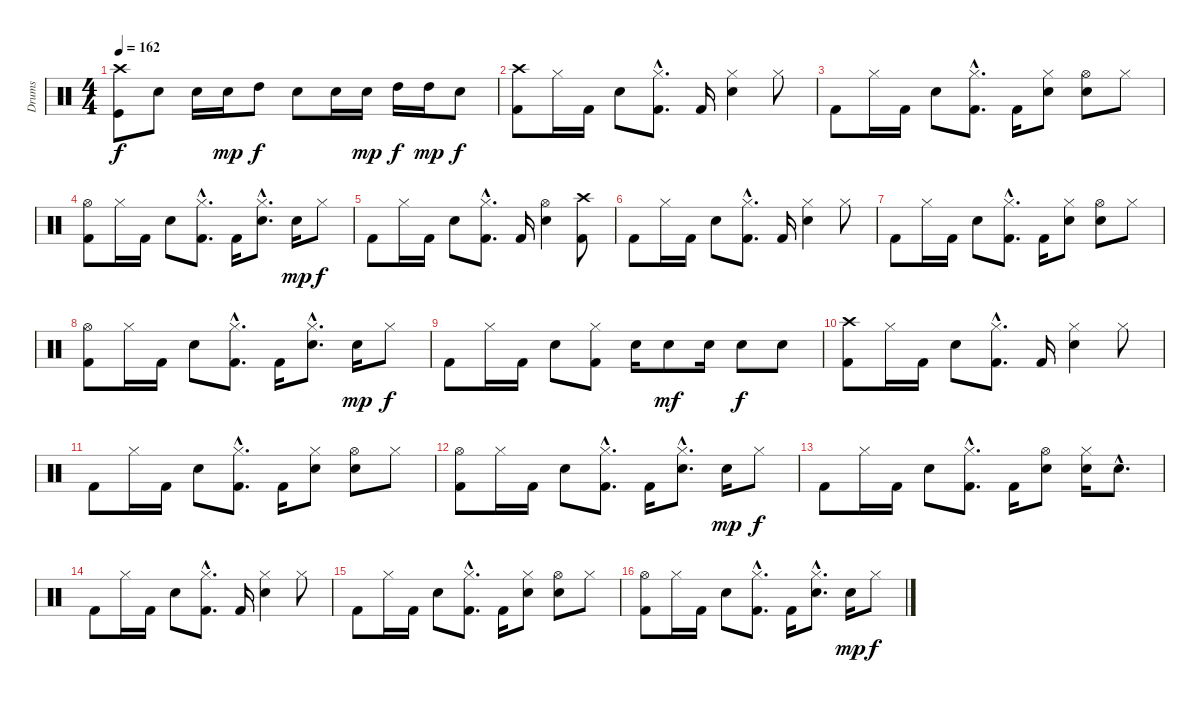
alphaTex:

\track ("Drums" "Drums") {instrument percussion}
\staff {score}
\articulation defaults
\ts (4 4)
\tempo 162
\clef neutral
\ks c
("Crash high (hit)" "Kick (hit)").8{dy f} "Electric Snare (hit)".8 "Electric Snare (hit)".16 "Electric Snare (hit)".16{dy mp} "High Tom (hit)".8{dy f} "Electric Snare (hit)".8 "Electric Snare (hit)".16 "Electric Snare (hit)".16{dy mp} "High Tom (hit)".16{dy f} "High Tom (hit)".16{dy mp} "Electric Snare (hit)".8{dy f} |
("Crash high (hit)" "Kick (hit) 2").8 "Hi-Hat (closed)".16 "Kick (hit) 2".16 "Electric Snare (hit)".8 ("Hi-Hat (closed)"{hac} "Kick (hit) 2"{hac}).8{d} "Kick (hit) 2".16 ("Hi-Hat (closed)" "Electric Snare (hit)").4 "Hi-Hat (closed)".8 |
"Kick (hit) 2".8 "Hi-Hat (closed)".16 "Kick (hit) 2".16 "Electric Snare (hit)".8 ("Hi-Hat (closed)"{hac} "Kick (hit) 2"{hac}).8{d} "Kick (hit) 2".16 ("Hi-Hat (closed)" "Electric Snare (hit)").8 ("Hi-Hat (open)" "Electric Snare (hit)").8 "Hi-Hat (closed)".8 |
("Hi-Hat (open)" "Kick (hit) 2").8 "Hi-Hat (closed)".16 "Kick (hit) 2".16 "Electric Snare (hit)".8 ("Hi-Hat (closed)"{hac} "Kick (hit) 2"{hac}).8{d} "Kick (hit) 2".16 ("Hi-Hat (closed)"{hac} "Electric Snare (hit)"{hac}).8{d} "Electric Snare (hit)".16{dy mp} "Hi-Hat (closed)".8{dy f} |
"Kick (hit) 2".8 "Hi-Hat (closed)".16 "Kick (hit) 2".16 "Electric Snare (hit)".8 ("Hi-Hat (closed)"{hac} "Kick (hit) 2"{hac}).8{d} "Kick (hit) 2".16 ("Hi-Hat (open)" "Electric Snare (hit)").4 ("Crash high (hit)" "Kick (hit) 2").8 |
"Kick (hit) 2".8 "Hi-Hat (closed)".16 "Kick (hit) 2".16 "Electric Snare (hit)".8 ("Hi-Hat (closed)"{hac} "Kick (hit) 2"{hac}).8{d} "Kick (hit) 2".16 ("Hi-Hat (closed)" "Electric Snare (hit)").4 "Hi-Hat (closed)".8 |
"Kick (hit) 2".8 "Hi-Hat (closed)".16 "Kick (hit) 2".16 "Electric Snare (hit)".8 ("Hi-Hat (closed)"{hac} "Kick (hit) 2"{hac}).8{d} "Kick (hit) 2".16 ("Hi-Hat (closed)" "Electric Snare (hit)").8 ("Hi-Hat (open)" "Electric Snare (hit)").8 "Hi-Hat (closed)".8 |
("Hi-Hat (open)" "Kick (hit) 2").8 "Hi-Hat (closed)".16 "Kick (hit) 2".16 "Electric Snare (hit)".8 ("Hi-Hat (closed)"{hac} "Kick (hit) 2"{hac}).8{d} "Kick (hit) 2".16 ("Hi-Hat (closed)"{hac} "Electric Snare (hit)"{hac}).8{d} "Electric Snare (hit)".16{dy mp} "Hi-Hat (closed)".8{dy f} |
"Kick (hit) 2".8 "Hi-Hat (closed)".16 "Kick (hit) 2".16 "Electric Snare (hit)".8 ("Hi-Hat (closed)" "Kick (hit) 2").8 "Electric Snare (hit)".16 "Electric Snare (hit)".8{dy mf} "Electric Snare (hit)".16 "Electric Snare (hit)".8{dy f} "Electric Snare (hit)".8 |
("Crash high (hit)" "Kick (hit) 2").8 "Hi-Hat (closed)".16 "Kick (hit) 2".16 "Electric Snare (hit)".8 ("Hi-Hat (closed)"{hac} "Kick (hit) 2"{hac}).8{d} "Kick (hit) 2".16 ("Hi-Hat (closed)" "Electric Snare (hit)").4 "Hi-Hat (closed)".8 |
"Kick (hit) 2".8 "Hi-Hat (closed)".16 "Kick (hit) 2".16 "Electric Snare (hit)".8 ("Hi-Hat (closed)"{hac} "Kick (hit) 2"{hac}).8{d} "Kick (hit) 2".16 ("Hi-Hat (closed)" "Electric Snare (hit)").8 ("Hi-Hat (open)" "Electric Snare (hit)").8 "Hi-Hat (closed)".8 |
("Hi-Hat (open)" "Kick (hit) 2").8 "Hi-Hat (closed)".16 "Kick (hit) 2".16 "Electric Snare (hit)".8 ("Hi-Hat (closed)"{hac} "Kick (hit) 2"{hac}).8{d} "Kick (hit) 2".16 ("Hi-Hat (closed)"{hac} "Electric Snare (hit)"{hac}).8{d} "Electric Snare (hit)".16{dy mp} "Hi-Hat (closed)".8{dy f} |
"Kick (hit) 2".8 "Hi-Hat (closed)".16 "Kick (hit) 2".16 "Electric Snare (hit)".8 ("Hi-Hat (closed)"{hac} "Kick (hit) 2"{hac}).8{d} "Kick (hit) 2".16 ("Hi-Hat (open)" "Electric Snare (hit)").8 ("Hi-Hat (closed)" "Electric Snare (hit)").16 "Electric Snare (hit)"{hac}.8{d} |
"Kick (hit) 2".8 "Hi-Hat (closed)".16 "Kick (hit) 2".16 "Electric Snare (hit)".8 ("Hi-Hat (closed)"{hac} "Kick (hit) 2"{hac}).8{d} "Kick (hit) 2".16 ("Hi-Hat (closed)" "Electric Snare (hit)").4 "Hi-Hat (closed)".8 |
"Kick (hit) 2".8 "Hi-Hat (closed)".16 "Kick (hit) 2".16 "Electric Snare (hit)".8 ("Hi-Hat (closed)"{hac} "Kick (hit) 2"{hac}).8{d} "Kick (hit) 2".16 ("Hi-Hat (closed)" "Electric Snare (hit)").8 ("Hi-Hat (open)" "Electric Snare (hit)").8 "Hi-Hat (closed)".8 |
("Hi-Hat (open)" "Kick (hit) 2").8 "Hi-Hat (closed)".16 "Kick (hit) 2".16 "Electric Snare (hit)".8 ("Hi-Hat (closed)"{hac} "Kick (hit) 2"{hac}).8{d} "Kick (hit) 2".16 ("Hi-Hat (closed)"{hac} "Electric Snare (hit)"{hac}).8{d} "Electric Snare (hit)".16{dy mp} "Hi-Hat (closed)".8{dy f}
